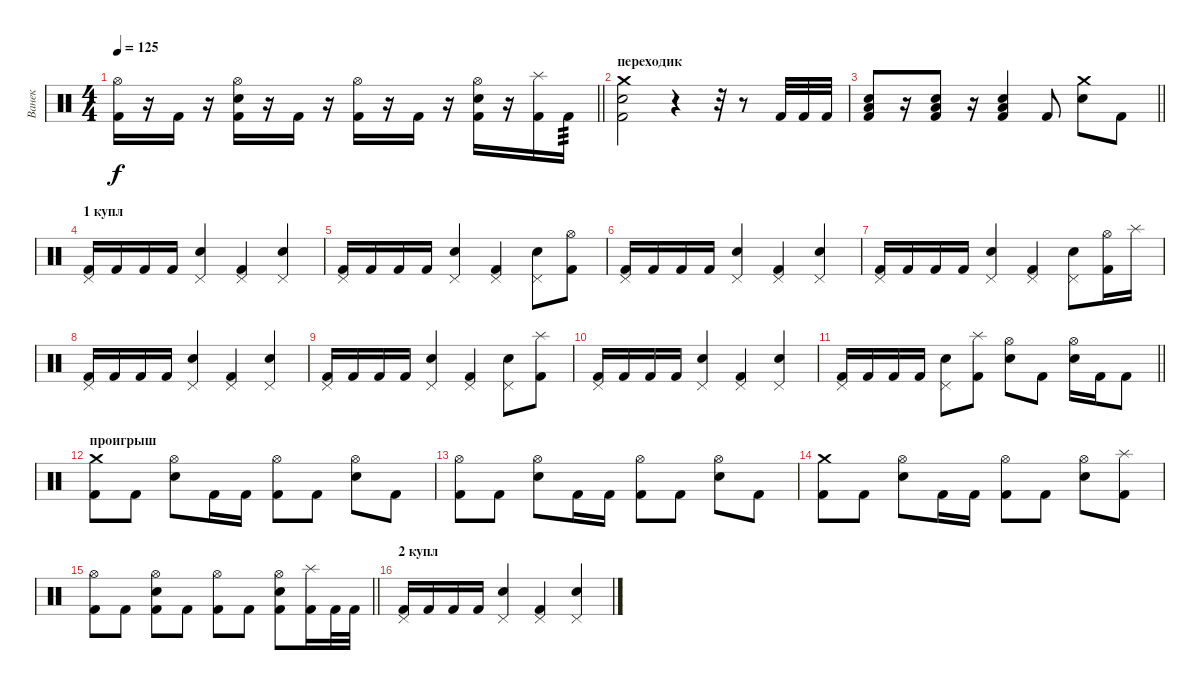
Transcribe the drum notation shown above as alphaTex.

\track ("Ванек" "Ванек") {instrument percussion}
\staff {score}
\articulation defaults
\ts (4 4)
\tempo 125
\clef neutral
\barLineRight lightlight
\ks c
("Hi-Hat (open)" "Kick (hit) 2").16{dy f} r.16 "Kick (hit) 2".16 r.16 ("Hi-Hat (open)" "Snare (hit) 2" "Kick (hit) 2").16 r.16 "Kick (hit) 2".16 r.16 ("Hi-Hat (open)" "Kick (hit) 2").16 r.16 "Kick (hit) 2".16 r.16 ("Hi-Hat (open)" "Snare (hit) 2" "Kick (hit) 2").16 r.16 ("Splash (hit)" "Kick (hit) 2").16 "Kick (hit) 2".16{tp 3} |
\section ("" "переходик")
("Crash medium (hit)" "Snare (hit) 2" "Kick (hit) 2").2 r.4 r.32 r.8 "Kick (hit) 2".32 "Kick (hit) 2".32 "Kick (hit) 2".32 |
\barLineRight lightlight
("Snare (hit) 2" "Low Floor Tom (hit)" "Kick (hit) 2").8 r.16 ("Snare (hit) 2" "Low Floor Tom (hit)" "Kick (hit) 2").8 r.16 ("Snare (hit) 2" "Low Floor Tom (hit)" "Kick (hit) 2").4 "Kick (hit) 2".8 ("Crash medium (hit)" "Snare (hit) 2").8 "Kick (hit) 2".8 |
\section ("" "1 купл")
("Pedal Hi-Hat (hit)" "Kick (hit) 2").16 "Kick (hit) 2".16 "Kick (hit) 2".16 "Kick (hit) 2".16 ("Pedal Hi-Hat (hit)" "Snare (hit) 2").4 ("Pedal Hi-Hat (hit)" "Kick (hit) 2").4 ("Pedal Hi-Hat (hit)" "Snare (hit) 2").4 |
("Pedal Hi-Hat (hit)" "Kick (hit) 2").16 "Kick (hit) 2".16 "Kick (hit) 2".16 "Kick (hit) 2".16 ("Pedal Hi-Hat (hit)" "Snare (hit) 2").4 ("Pedal Hi-Hat (hit)" "Kick (hit) 2").4 ("Pedal Hi-Hat (hit)" "Snare (hit) 2").8 ("Hi-Hat (open)" "Kick (hit) 2").8 |
("Pedal Hi-Hat (hit)" "Kick (hit) 2").16 "Kick (hit) 2".16 "Kick (hit) 2".16 "Kick (hit) 2".16 ("Pedal Hi-Hat (hit)" "Snare (hit) 2").4 ("Pedal Hi-Hat (hit)" "Kick (hit) 2").4 ("Pedal Hi-Hat (hit)" "Snare (hit) 2").4 |
("Pedal Hi-Hat (hit)" "Kick (hit) 2").16 "Kick (hit) 2".16 "Kick (hit) 2".16 "Kick (hit) 2".16 ("Pedal Hi-Hat (hit)" "Snare (hit) 2").4 ("Pedal Hi-Hat (hit)" "Kick (hit) 2").4 ("Pedal Hi-Hat (hit)" "Snare (hit) 2").8 ("Hi-Hat (open)" "Kick (hit) 2").16 "Splash (hit)".16 |
("Pedal Hi-Hat (hit)" "Kick (hit) 2").16 "Kick (hit) 2".16 "Kick (hit) 2".16 "Kick (hit) 2".16 ("Pedal Hi-Hat (hit)" "Snare (hit) 2").4 ("Pedal Hi-Hat (hit)" "Kick (hit) 2").4 ("Pedal Hi-Hat (hit)" "Snare (hit) 2").4 |
("Pedal Hi-Hat (hit)" "Kick (hit) 2").16 "Kick (hit) 2".16 "Kick (hit) 2".16 "Kick (hit) 2".16 ("Pedal Hi-Hat (hit)" "Snare (hit) 2").4 ("Pedal Hi-Hat (hit)" "Kick (hit) 2").4 ("Pedal Hi-Hat (hit)" "Snare (hit) 2").8 ("Splash (hit)" "Kick (hit) 2").8 |
("Pedal Hi-Hat (hit)" "Kick (hit) 2").16 "Kick (hit) 2".16 "Kick (hit) 2".16 "Kick (hit) 2".16 ("Pedal Hi-Hat (hit)" "Snare (hit) 2").4 ("Pedal Hi-Hat (hit)" "Kick (hit) 2").4 ("Pedal Hi-Hat (hit)" "Snare (hit) 2").4 |
\barLineRight lightlight
("Pedal Hi-Hat (hit)" "Kick (hit) 2").16 "Kick (hit) 2".16 "Kick (hit) 2".16 "Kick (hit) 2".16 ("Pedal Hi-Hat (hit)" "Snare (hit) 2").8 ("Splash (hit)" "Kick (hit) 2").8 ("Hi-Hat (open)" "Snare (hit) 2").8 "Kick (hit) 2".8 ("Hi-Hat (open)" "Snare (hit) 2").16 "Kick (hit) 2".16 "Kick (hit) 2".8 |
\section ("" "проигрыш")
("Crash medium (hit)" "Kick (hit) 2").8 "Kick (hit) 2".8 ("Hi-Hat (open)" "Snare (hit) 2").8 "Kick (hit) 2".16 "Kick (hit) 2".16 ("Hi-Hat (open)" "Kick (hit) 2").8 "Kick (hit) 2".8 ("Hi-Hat (open)" "Snare (hit) 2").8 "Kick (hit) 2".8 |
("Hi-Hat (open)" "Kick (hit) 2").8 "Kick (hit) 2".8 ("Hi-Hat (open)" "Snare (hit) 2").8 "Kick (hit) 2".16 "Kick (hit) 2".16 ("Hi-Hat (open)" "Kick (hit) 2").8 "Kick (hit) 2".8 ("Hi-Hat (open)" "Snare (hit) 2").8 "Kick (hit) 2".8 |
("Crash medium (hit)" "Kick (hit) 2").8 "Kick (hit) 2".8 ("Hi-Hat (open)" "Snare (hit) 2").8 "Kick (hit) 2".16 "Kick (hit) 2".16 ("Hi-Hat (open)" "Kick (hit) 2").8 "Kick (hit) 2".8 ("Hi-Hat (open)" "Snare (hit) 2").8 ("Splash (hit)" "Kick (hit) 2").8 |
\barLineRight lightlight
("Hi-Hat (open)" "Kick (hit) 2").8 "Kick (hit) 2".8 ("Hi-Hat (open)" "Snare (hit) 2" "Kick (hit) 2").8 "Kick (hit) 2".8 ("Hi-Hat (open)" "Kick (hit) 2").8 "Kick (hit) 2".8 ("Hi-Hat (open)" "Snare (hit) 2" "Kick (hit) 2").8 ("Splash (hit)" "Kick (hit) 2").16 "Kick (hit) 2".32 "Kick (hit) 2".32 |
\section ("" "2 купл")
("Pedal Hi-Hat (hit)" "Kick (hit) 2").16 "Kick (hit) 2".16 "Kick (hit) 2".16 "Kick (hit) 2".16 ("Pedal Hi-Hat (hit)" "Snare (hit) 2").4 ("Pedal Hi-Hat (hit)" "Kick (hit) 2").4 ("Pedal Hi-Hat (hit)" "Snare (hit) 2").4
